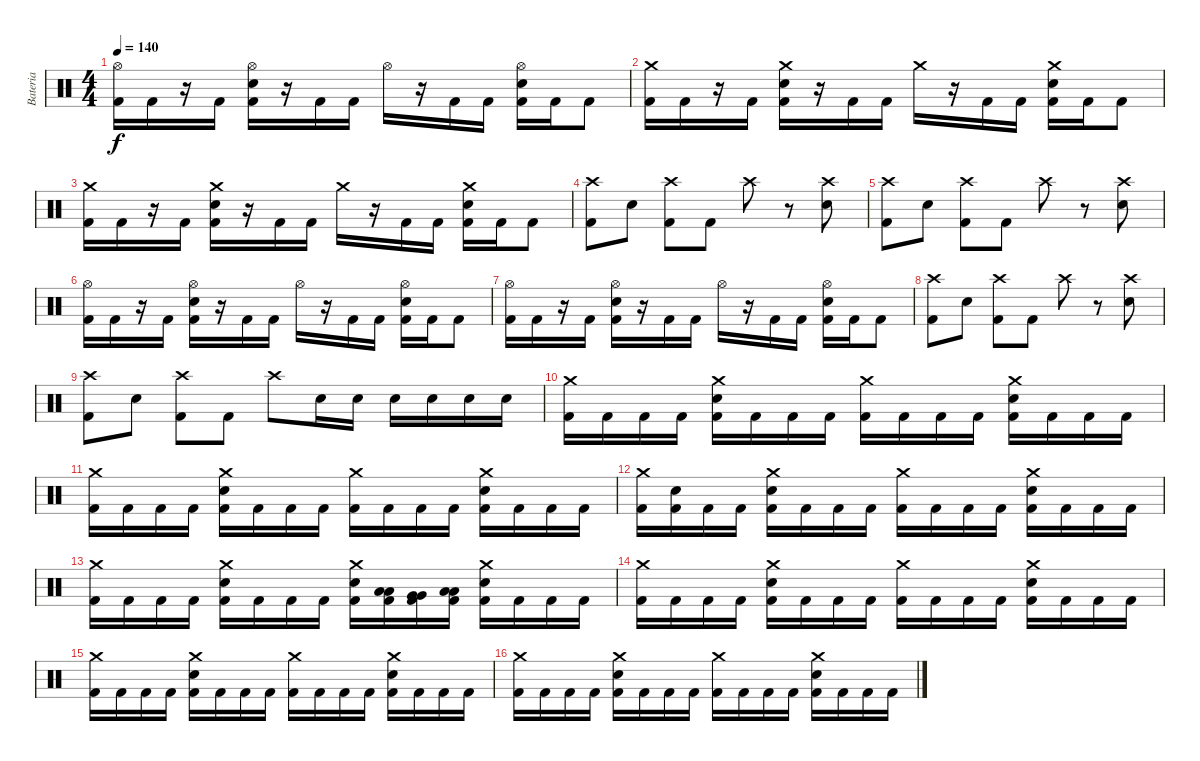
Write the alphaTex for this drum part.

\track ("Bateria" "Bateria") {instrument percussion}
\staff {score}
\articulation defaults
\ts (4 4)
\tempo 140
\clef neutral
\ks c
("Hi-Hat (open)" "Kick (hit) 2").16{dy f} "Kick (hit) 2".16 r.16 "Kick (hit) 2".16 ("Hi-Hat (open)" "Electric Snare (hit)" "Kick (hit) 2").16 r.16 "Kick (hit) 2".16 "Kick (hit) 2".16 "Hi-Hat (open)".16 r.16 "Kick (hit) 2".16 "Kick (hit) 2".16 ("Hi-Hat (open)" "Electric Snare (hit)" "Kick (hit) 2").16 "Kick (hit) 2".16 "Kick (hit) 2".8 |
("Crash medium (hit)" "Kick (hit) 2").16 "Kick (hit) 2".16 r.16 "Kick (hit) 2".16 ("Crash medium (hit)" "Electric Snare (hit)" "Kick (hit) 2").16 r.16 "Kick (hit) 2".16 "Kick (hit) 2".16 "Crash medium (hit)".16 r.16 "Kick (hit) 2".16 "Kick (hit) 2".16 ("Crash medium (hit)" "Electric Snare (hit)" "Kick (hit) 2").16 "Kick (hit) 2".16 "Kick (hit) 2".8 |
("Crash medium (hit)" "Kick (hit) 2").16 "Kick (hit) 2".16 r.16 "Kick (hit) 2".16 ("Crash medium (hit)" "Electric Snare (hit)" "Kick (hit) 2").16 r.16 "Kick (hit) 2".16 "Kick (hit) 2".16 "Crash medium (hit)".16 r.16 "Kick (hit) 2".16 "Kick (hit) 2".16 ("Crash medium (hit)" "Electric Snare (hit)" "Kick (hit) 2").16 "Kick (hit) 2".16 "Kick (hit) 2".8 |
("Crash high (hit)" "Kick (hit) 2").8 "Electric Snare (hit)".8 ("Crash high (hit)" "Kick (hit) 2").8 "Kick (hit) 2".8 "Crash high (hit)".8 r.8 ("Crash high (hit)" "Electric Snare (hit)").8 |
("Crash high (hit)" "Kick (hit) 2").8 "Electric Snare (hit)".8 ("Crash high (hit)" "Kick (hit) 2").8 "Kick (hit) 2".8 "Crash high (hit)".8 r.8 ("Crash high (hit)" "Electric Snare (hit)").8 |
("Hi-Hat (open)" "Kick (hit) 2").16 "Kick (hit) 2".16 r.16 "Kick (hit) 2".16 ("Hi-Hat (open)" "Electric Snare (hit)" "Kick (hit) 2").16 r.16 "Kick (hit) 2".16 "Kick (hit) 2".16 "Hi-Hat (open)".16 r.16 "Kick (hit) 2".16 "Kick (hit) 2".16 ("Hi-Hat (open)" "Electric Snare (hit)" "Kick (hit) 2").16 "Kick (hit) 2".16 "Kick (hit) 2".8 |
("Hi-Hat (open)" "Kick (hit) 2").16 "Kick (hit) 2".16 r.16 "Kick (hit) 2".16 ("Hi-Hat (open)" "Electric Snare (hit)" "Kick (hit) 2").16 r.16 "Kick (hit) 2".16 "Kick (hit) 2".16 "Hi-Hat (open)".16 r.16 "Kick (hit) 2".16 "Kick (hit) 2".16 ("Hi-Hat (open)" "Electric Snare (hit)" "Kick (hit) 2").16 "Kick (hit) 2".16 "Kick (hit) 2".8 |
("Crash high (hit)" "Kick (hit) 2").8 "Electric Snare (hit)".8 ("Crash high (hit)" "Kick (hit) 2").8 "Kick (hit) 2".8 "Crash high (hit)".8 r.8 ("Crash high (hit)" "Electric Snare (hit)").8 |
("Crash high (hit)" "Kick (hit) 2").8 "Electric Snare (hit)".8 ("Crash high (hit)" "Kick (hit) 2").8 "Kick (hit) 2".8 "Crash high (hit)".8 "Electric Snare (hit)".16 "Electric Snare (hit)".16 "Electric Snare (hit)".16 "Electric Snare (hit)".16 "Electric Snare (hit)".16 "Electric Snare (hit)".16 |
("Crash medium (hit)" "Kick (hit) 2").16 "Kick (hit) 2".16 "Kick (hit) 2".16 "Kick (hit) 2".16 ("Crash medium (hit)" "Electric Snare (hit)" "Kick (hit) 2").16 "Kick (hit) 2".16 "Kick (hit) 2".16 "Kick (hit) 2".16 ("Crash medium (hit)" "Kick (hit) 2").16 "Kick (hit) 2".16 "Kick (hit) 2".16 "Kick (hit) 2".16 ("Crash medium (hit)" "Electric Snare (hit)" "Kick (hit) 2").16 "Kick (hit) 2".16 "Kick (hit) 2".16 "Kick (hit) 2".16 |
("Crash medium (hit)" "Kick (hit) 2").16 "Kick (hit) 2".16 "Kick (hit) 2".16 "Kick (hit) 2".16 ("Crash medium (hit)" "Electric Snare (hit)" "Kick (hit) 2").16 "Kick (hit) 2".16 "Kick (hit) 2".16 "Kick (hit) 2".16 ("Crash medium (hit)" "Kick (hit) 2").16 "Kick (hit) 2".16 "Kick (hit) 2".16 "Kick (hit) 2".16 ("Crash medium (hit)" "Electric Snare (hit)" "Kick (hit) 2").16 "Kick (hit) 2".16 "Kick (hit) 2".16 "Kick (hit) 2".16 |
("Crash medium (hit)" "Kick (hit) 2").16 ("Electric Snare (hit)" "Kick (hit) 2").16 "Kick (hit) 2".16 "Kick (hit) 2".16 ("Crash medium (hit)" "Electric Snare (hit)" "Kick (hit) 2").16 "Kick (hit) 2".16 "Kick (hit) 2".16 "Kick (hit) 2".16 ("Crash medium (hit)" "Kick (hit) 2").16 "Kick (hit) 2".16 "Kick (hit) 2".16 "Kick (hit) 2".16 ("Crash medium (hit)" "Electric Snare (hit)" "Kick (hit) 2").16 "Kick (hit) 2".16 "Kick (hit) 2".16 "Kick (hit) 2".16 |
("Crash medium (hit)" "Kick (hit) 2").16 "Kick (hit) 2".16 "Kick (hit) 2".16 "Kick (hit) 2".16 ("Crash medium (hit)" "Electric Snare (hit)" "Kick (hit) 2").16 "Kick (hit) 2".16 "Kick (hit) 2".16 "Kick (hit) 2".16 ("Crash medium (hit)" "Electric Snare (hit)" "Kick (hit) 2").16 ("Low Tom (hit)" "Low Tom (hit)" "Kick (hit) 2").16 ("Very Low Tom (hit)" "Very Low Tom (hit)" "Kick (hit) 2").16 ("Low Floor Tom (hit)" "Low Floor Tom (hit)" "Kick (hit) 2").16 ("Crash medium (hit)" "Electric Snare (hit)" "Kick (hit) 2").16 "Kick (hit) 2".16 "Kick (hit) 2".16 "Kick (hit) 2".16 |
("Crash medium (hit)" "Kick (hit) 2").16 "Kick (hit) 2".16 "Kick (hit) 2".16 "Kick (hit) 2".16 ("Crash medium (hit)" "Electric Snare (hit)" "Kick (hit) 2").16 "Kick (hit) 2".16 "Kick (hit) 2".16 "Kick (hit) 2".16 ("Crash medium (hit)" "Kick (hit) 2").16 "Kick (hit) 2".16 "Kick (hit) 2".16 "Kick (hit) 2".16 ("Crash medium (hit)" "Electric Snare (hit)" "Kick (hit) 2").16 "Kick (hit) 2".16 "Kick (hit) 2".16 "Kick (hit) 2".16 |
("Crash medium (hit)" "Kick (hit) 2").16 "Kick (hit) 2".16 "Kick (hit) 2".16 "Kick (hit) 2".16 ("Crash medium (hit)" "Electric Snare (hit)" "Kick (hit) 2").16 "Kick (hit) 2".16 "Kick (hit) 2".16 "Kick (hit) 2".16 ("Crash medium (hit)" "Kick (hit) 2").16 "Kick (hit) 2".16 "Kick (hit) 2".16 "Kick (hit) 2".16 ("Crash medium (hit)" "Electric Snare (hit)" "Kick (hit) 2").16 "Kick (hit) 2".16 "Kick (hit) 2".16 "Kick (hit) 2".16 |
("Crash medium (hit)" "Kick (hit) 2").16 "Kick (hit) 2".16 "Kick (hit) 2".16 "Kick (hit) 2".16 ("Crash medium (hit)" "Electric Snare (hit)" "Kick (hit) 2").16 "Kick (hit) 2".16 "Kick (hit) 2".16 "Kick (hit) 2".16 ("Crash medium (hit)" "Kick (hit) 2").16 "Kick (hit) 2".16 "Kick (hit) 2".16 "Kick (hit) 2".16 ("Crash medium (hit)" "Electric Snare (hit)" "Kick (hit) 2").16 "Kick (hit) 2".16 "Kick (hit) 2".16 "Kick (hit) 2".16
